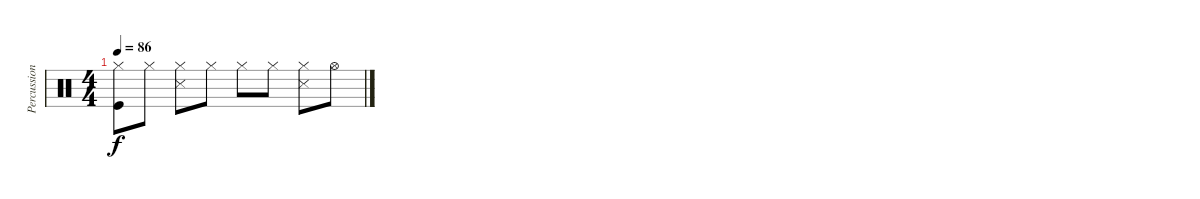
\track ("Percussion" "Percussion") {instrument percussion}
\staff {score}
\articulation defaults
\ts (4 4)
\tempo 86
\clef neutral
\ks c
("Kick (hit)" "Hi-Hat (closed)").8{dy f} "Hi-Hat (closed)".8 ("Hi-Hat (closed)" "Snare (side stick) 3").8 "Hi-Hat (closed)".8 "Hi-Hat (closed)".8 "Hi-Hat (closed)".8 ("Hi-Hat (closed)" "Snare (side stick) 3").8 "Hi-Hat (open)".8
